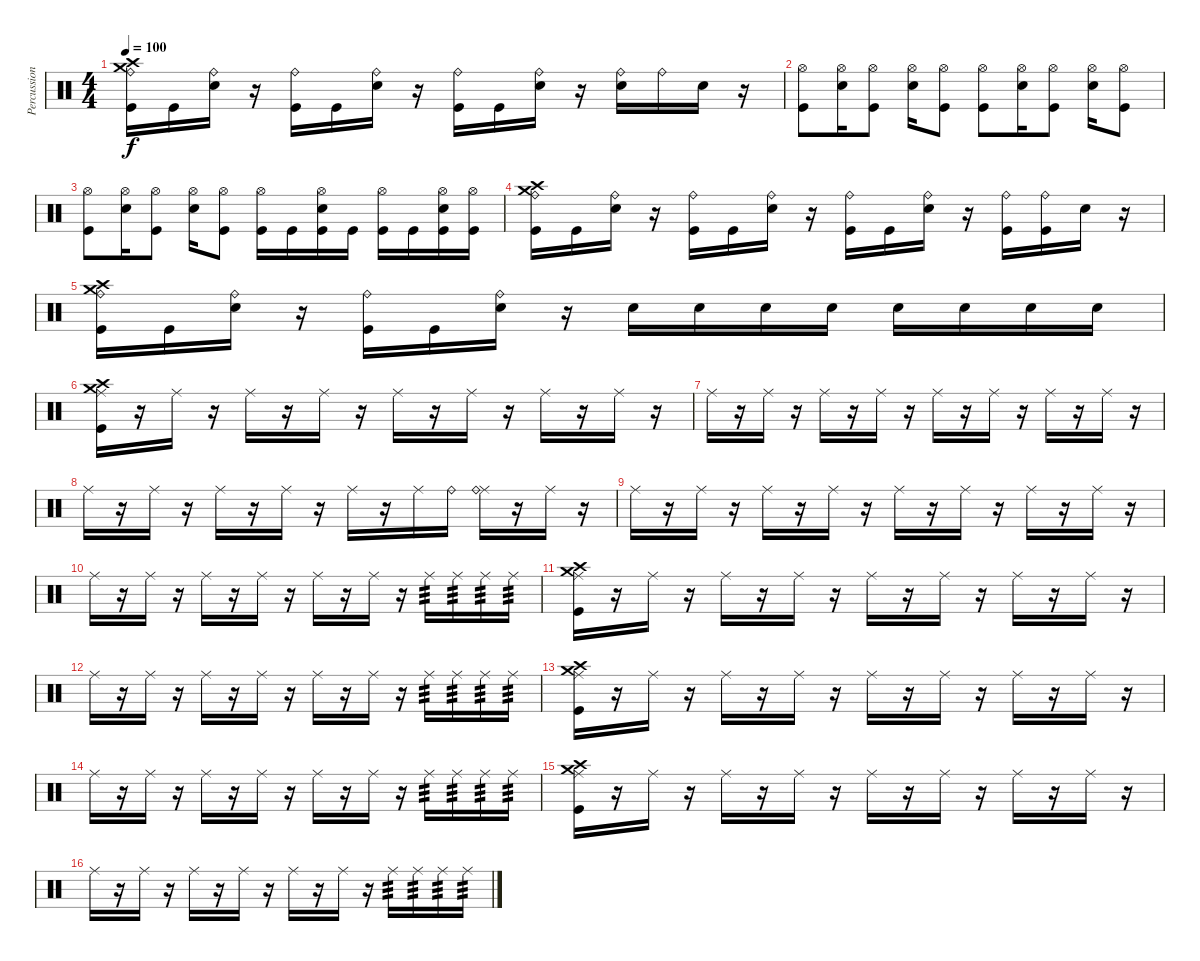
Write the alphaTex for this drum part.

\track ("Percussion" "Percussion") {instrument percussion}
\staff {score}
\articulation defaults
\ts (4 4)
\tempo 100
\clef neutral
\ks c
("Crash medium (hit)" "Crash high (hit)" "Ride (bell)" "Kick (hit)").16{dy f} "Kick (hit)".16 ("Ride (bell)" "Snare (hit) 2").16 r.16 ("Ride (bell)" "Kick (hit)").16 "Kick (hit)".16 ("Ride (bell)" "Snare (hit) 2").16 r.16 ("Ride (bell)" "Kick (hit)").16 "Kick (hit)".16 ("Ride (bell)" "Snare (hit) 2").16 r.16 ("Ride (bell)" "Snare (hit) 2").16 "Ride (bell)".16 "Snare (hit) 2".16 r.16 |
("Hi-Hat (open)" "Kick (hit)").8 ("Hi-Hat (open)" "Snare (hit) 2").16 ("Hi-Hat (open)" "Kick (hit)").8 ("Hi-Hat (open)" "Snare (hit) 2").16 ("Hi-Hat (open)" "Kick (hit)").8 ("Hi-Hat (open)" "Kick (hit)").8 ("Hi-Hat (open)" "Snare (hit) 2").16 ("Hi-Hat (open)" "Kick (hit)").8 ("Hi-Hat (open)" "Snare (hit) 2").16 ("Hi-Hat (open)" "Kick (hit)").8 |
("Hi-Hat (open)" "Kick (hit)").8 ("Hi-Hat (open)" "Snare (hit) 2").16 ("Hi-Hat (open)" "Kick (hit)").8 ("Hi-Hat (open)" "Snare (hit) 2").16 ("Hi-Hat (open)" "Kick (hit)").8 ("Hi-Hat (open)" "Kick (hit)").16 "Kick (hit)".16 ("Hi-Hat (open)" "Snare (hit) 2" "Kick (hit)").16 "Kick (hit)".16 ("Hi-Hat (open)" "Kick (hit)").16 "Kick (hit)".16 ("Hi-Hat (open)" "Snare (hit) 2" "Kick (hit)").16 ("Hi-Hat (open)" "Kick (hit)").16 |
("Crash medium (hit)" "Crash high (hit)" "Ride (bell)" "Kick (hit)").16 "Kick (hit)".16 ("Ride (bell)" "Snare (hit) 2").16 r.16 ("Ride (bell)" "Kick (hit)").16 "Kick (hit)".16 ("Ride (bell)" "Snare (hit) 2").16 r.16 ("Ride (bell)" "Kick (hit)").16 "Kick (hit)".16 ("Ride (bell)" "Snare (hit) 2").16 r.16 ("Ride (bell)" "Kick (hit)").16 ("Ride (bell)" "Kick (hit)").16 "Snare (hit) 2".16 r.16 |
("Crash medium (hit)" "Crash high (hit)" "Ride (bell)" "Kick (hit)").16 "Kick (hit)".16 ("Ride (bell)" "Snare (hit) 2").16 r.16 ("Ride (bell)" "Kick (hit)").16 "Kick (hit)".16 ("Ride (bell)" "Snare (hit) 2").16 r.16 "Electric Snare (hit)".16 "Electric Snare (hit)".16 "Electric Snare (hit)".16 "Electric Snare (hit)".16 "Snare (hit) 2".16 "Snare (hit) 2".16 "Snare (hit) 2".16 "Snare (hit) 2".16 |
("Crash medium (hit)" "Crash high (hit)" "Ride (middle)" "Kick (hit)").16 r.16 "Ride (middle)".16 r.16 "Ride (middle)".16 r.16 "Ride (middle)".16 r.16 "Ride (middle)".16 r.16 "Ride (middle)".16 r.16 "Ride (middle)".16 r.16 "Ride (middle)".16 r.16 |
"Ride (middle)".16 r.16 "Ride (middle)".16 r.16 "Ride (middle)".16 r.16 "Ride (middle)".16 r.16 "Ride (middle)".16 r.16 "Ride (middle)".16 r.16 "Ride (middle)".16 r.16 "Ride (middle)".16 r.16 |
"Ride (middle)".16 r.16 "Ride (middle)".16 r.16 "Ride (middle)".16 r.16 "Ride (middle)".16 r.16 "Ride (middle)".16 r.16 "Ride (middle)".16 "Ride (bell)".16 ("Ride (middle)" "Ride (bell)").16 r.16 "Ride (middle)".16 r.16 |
"Ride (middle)".16 r.16 "Ride (middle)".16 r.16 "Ride (middle)".16 r.16 "Ride (middle)".16 r.16 "Ride (middle)".16 r.16 "Ride (middle)".16 r.16 "Ride (middle)".16 r.16 "Ride (middle)".16 r.16 |
"Ride (middle)".16 r.16 "Ride (middle)".16 r.16 "Ride (middle)".16 r.16 "Ride (middle)".16 r.16 "Ride (middle)".16 r.16 "Ride (middle)".16 r.16 "Ride (middle)".16{tp 3} "Ride (middle)".16{tp 3} "Ride (middle)".16{tp 3} "Ride (middle)".16{tp 3} |
("Crash medium (hit)" "Crash high (hit)" "Ride (middle)" "Kick (hit)").16{volume 16} r.16 "Ride (middle)".16 r.16 "Ride (middle)".16 r.16 "Ride (middle)".16 r.16 "Ride (middle)".16 r.16 "Ride (middle)".16 r.16 "Ride (middle)".16 r.16 "Ride (middle)".16 r.16 |
"Ride (middle)".16 r.16 "Ride (middle)".16 r.16 "Ride (middle)".16 r.16 "Ride (middle)".16 r.16 "Ride (middle)".16 r.16 "Ride (middle)".16 r.16 "Ride (middle)".16{tp 3} "Ride (middle)".16{tp 3} "Ride (middle)".16{tp 3} "Ride (middle)".16{tp 3} |
("Crash medium (hit)" "Crash high (hit)" "Ride (middle)" "Kick (hit)").16 r.16 "Ride (middle)".16 r.16 "Ride (middle)".16 r.16 "Ride (middle)".16 r.16 "Ride (middle)".16 r.16 "Ride (middle)".16 r.16 "Ride (middle)".16 r.16 "Ride (middle)".16 r.16 |
"Ride (middle)".16 r.16 "Ride (middle)".16 r.16 "Ride (middle)".16 r.16 "Ride (middle)".16 r.16 "Ride (middle)".16 r.16 "Ride (middle)".16 r.16 "Ride (middle)".16{tp 3} "Ride (middle)".16{tp 3} "Ride (middle)".16{tp 3} "Ride (middle)".16{tp 3} |
("Crash medium (hit)" "Crash high (hit)" "Ride (middle)" "Kick (hit)").16 r.16 "Ride (middle)".16 r.16 "Ride (middle)".16 r.16 "Ride (middle)".16 r.16 "Ride (middle)".16 r.16 "Ride (middle)".16 r.16 "Ride (middle)".16 r.16 "Ride (middle)".16 r.16 |
"Ride (middle)".16 r.16 "Ride (middle)".16 r.16 "Ride (middle)".16 r.16 "Ride (middle)".16 r.16 "Ride (middle)".16 r.16 "Ride (middle)".16 r.16 "Ride (middle)".16{tp 3} "Ride (middle)".16{tp 3} "Ride (middle)".16{tp 3} "Ride (middle)".16{tp 3}
